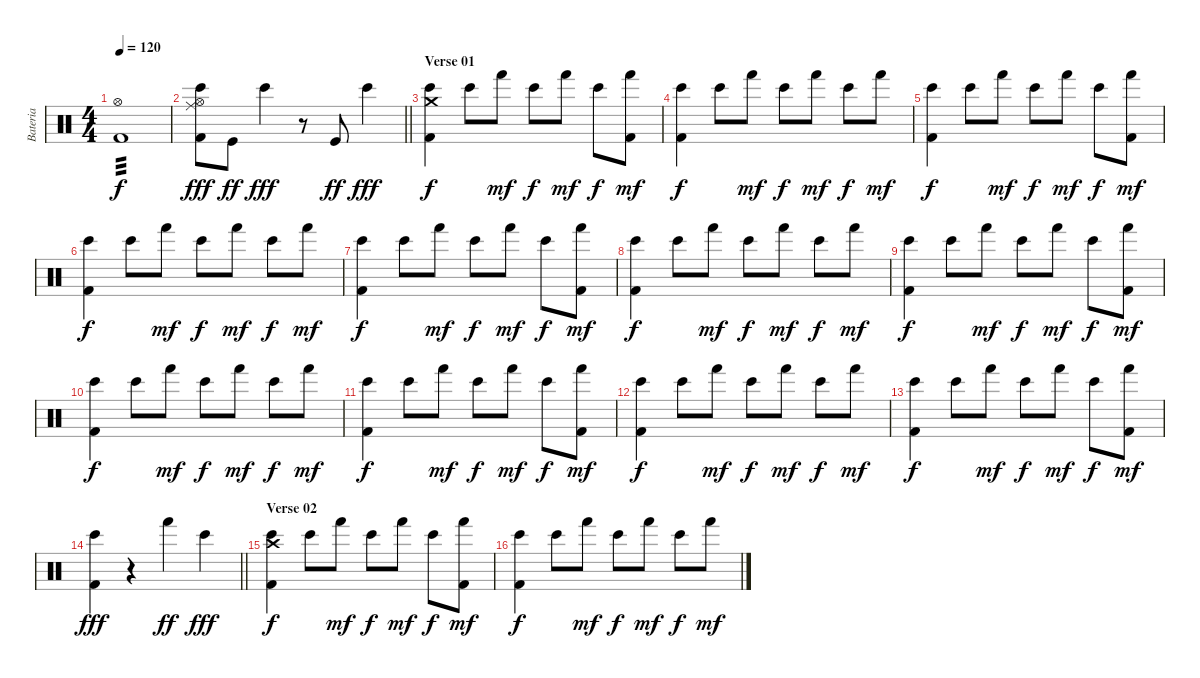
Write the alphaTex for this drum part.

\track ("Bateria" "Bateria") {instrument percussion}
\staff {score}
\articulation defaults
\ts (4 4)
\tempo 120
\clef neutral
\ks c
("Hi-Hat (open)" "Kick (hit) 2").1{tp 3 dy f volume 16} |
\barLineRight lightlight
("Hi-Hat (open)" "Kick (hit) 2" "Bongo High (hit)" "Ride (middle)").8{dy fff} "Kick (hit)".8{dy ff} "Bongo High (hit)".4{dy fff} r.8 "Kick (hit)".8{dy ff} "Bongo High (hit)".4{dy fff} |
\section ("" "Verse 01")
("Kick (hit) 2" "Bongo High (hit)" "Crash medium (hit)").4{dy f} "Bongo High (hit)".8 "Hand (hit)".8{dy mf} "Bongo High (hit)".8{dy f} "Hand (hit)".8{dy mf} "Bongo High (hit)".8{dy f} ("Kick (hit) 2" "Hand (hit)").8{dy mf} |
("Kick (hit) 2" "Bongo High (hit)").4{dy f} "Bongo High (hit)".8 "Hand (hit)".8{dy mf} "Bongo High (hit)".8{dy f} "Hand (hit)".8{dy mf} "Bongo High (hit)".8{dy f} "Hand (hit)".8{dy mf} |
("Kick (hit) 2" "Bongo High (hit)").4{dy f} "Bongo High (hit)".8 "Hand (hit)".8{dy mf} "Bongo High (hit)".8{dy f} "Hand (hit)".8{dy mf} "Bongo High (hit)".8{dy f} ("Kick (hit) 2" "Hand (hit)").8{dy mf} |
("Kick (hit) 2" "Bongo High (hit)").4{dy f} "Bongo High (hit)".8 "Hand (hit)".8{dy mf} "Bongo High (hit)".8{dy f} "Hand (hit)".8{dy mf} "Bongo High (hit)".8{dy f} "Hand (hit)".8{dy mf} |
("Kick (hit) 2" "Bongo High (hit)").4{dy f} "Bongo High (hit)".8 "Hand (hit)".8{dy mf} "Bongo High (hit)".8{dy f} "Hand (hit)".8{dy mf} "Bongo High (hit)".8{dy f} ("Kick (hit) 2" "Hand (hit)").8{dy mf} |
("Kick (hit) 2" "Bongo High (hit)").4{dy f} "Bongo High (hit)".8 "Hand (hit)".8{dy mf} "Bongo High (hit)".8{dy f} "Hand (hit)".8{dy mf} "Bongo High (hit)".8{dy f} "Hand (hit)".8{dy mf} |
("Kick (hit) 2" "Bongo High (hit)").4{dy f} "Bongo High (hit)".8 "Hand (hit)".8{dy mf} "Bongo High (hit)".8{dy f} "Hand (hit)".8{dy mf} "Bongo High (hit)".8{dy f} ("Kick (hit) 2" "Hand (hit)").8{dy mf} |
("Kick (hit) 2" "Bongo High (hit)").4{dy f} "Bongo High (hit)".8 "Hand (hit)".8{dy mf} "Bongo High (hit)".8{dy f} "Hand (hit)".8{dy mf} "Bongo High (hit)".8{dy f} "Hand (hit)".8{dy mf} |
("Kick (hit) 2" "Bongo High (hit)").4{dy f} "Bongo High (hit)".8 "Hand (hit)".8{dy mf} "Bongo High (hit)".8{dy f} "Hand (hit)".8{dy mf} "Bongo High (hit)".8{dy f} ("Kick (hit) 2" "Hand (hit)").8{dy mf} |
("Kick (hit) 2" "Bongo High (hit)").4{dy f} "Bongo High (hit)".8 "Hand (hit)".8{dy mf} "Bongo High (hit)".8{dy f} "Hand (hit)".8{dy mf} "Bongo High (hit)".8{dy f} "Hand (hit)".8{dy mf} |
("Kick (hit) 2" "Bongo High (hit)").4{dy f} "Bongo High (hit)".8 "Hand (hit)".8{dy mf} "Bongo High (hit)".8{dy f} "Hand (hit)".8{dy mf} "Bongo High (hit)".8{dy f} ("Kick (hit) 2" "Hand (hit)").8{dy mf} |
\barLineRight lightlight
("Kick (hit) 2" "Bongo High (hit)").4{dy fff} r.4 "Hand (hit)".4{dy ff} "Bongo High (hit)".4{dy fff} |
\section ("" "Verse 02")
("Kick (hit) 2" "Bongo High (hit)" "Crash high (hit)").4{dy f} "Bongo High (hit)".8 "Hand (hit)".8{dy mf} "Bongo High (hit)".8{dy f} "Hand (hit)".8{dy mf} "Bongo High (hit)".8{dy f} ("Kick (hit) 2" "Hand (hit)").8{dy mf} |
("Kick (hit) 2" "Bongo High (hit)").4{dy f} "Bongo High (hit)".8 "Hand (hit)".8{dy mf} "Bongo High (hit)".8{dy f} "Hand (hit)".8{dy mf} "Bongo High (hit)".8{dy f} "Hand (hit)".8{dy mf}
